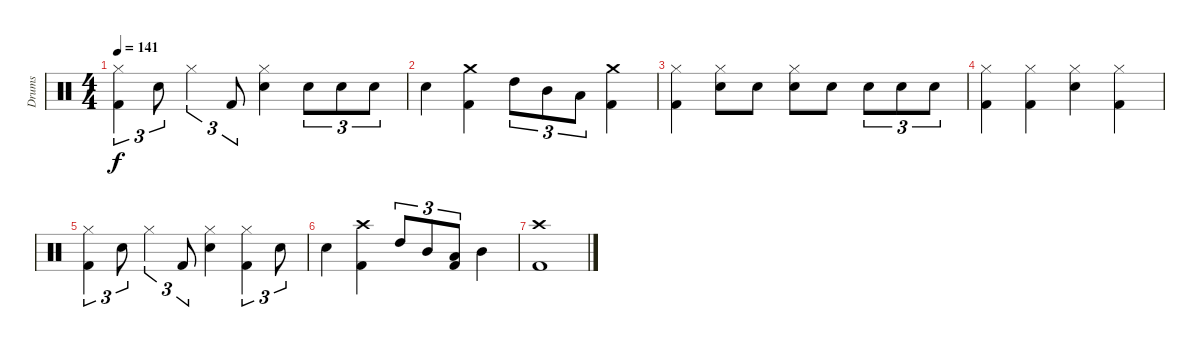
\track ("Drums" "Drums") {instrument percussion}
\staff {score}
\articulation defaults
\ts (4 4)
\tempo 141
\clef neutral
\ks c
("Hi-Hat (closed)" "Kick (hit) 2").4{tu (3 2) dy f} "Electric Snare (hit)".8{tu (3 2)} "Hi-Hat (closed)".4{tu (3 2)} "Kick (hit) 2".8{tu (3 2)} ("Hi-Hat (closed)" "Electric Snare (hit)").4 "Electric Snare (hit)".8{tu (3 2)} "Electric Snare (hit)".8{tu (3 2)} "Electric Snare (hit)".8{tu (3 2)} |
"Electric Snare (hit)".4 ("Crash medium (hit)" "Kick (hit) 2").4 "High Tom (hit)".8{tu (3 2)} "Mid Tom (hit)".8{tu (3 2)} "Low Tom (hit)".8{tu (3 2)} ("Crash medium (hit)" "Kick (hit) 2").4 |
("Hi-Hat (closed)" "Kick (hit) 2").4 ("Hi-Hat (closed)" "Electric Snare (hit)").8 "Electric Snare (hit)".8 ("Hi-Hat (closed)" "Electric Snare (hit)").8 "Electric Snare (hit)".8 "Electric Snare (hit)".8{tu (3 2)} "Electric Snare (hit)".8{tu (3 2)} "Electric Snare (hit)".8{tu (3 2)} |
("Hi-Hat (closed)" "Kick (hit) 2").4 ("Hi-Hat (closed)" "Kick (hit) 2").4 ("Hi-Hat (closed)" "Electric Snare (hit)").4 ("Hi-Hat (closed)" "Kick (hit) 2").4 |
("Hi-Hat (closed)" "Kick (hit) 2").4{tu (3 2)} "Electric Snare (hit)".8{tu (3 2)} "Hi-Hat (closed)".4{tu (3 2)} "Kick (hit) 2".8{tu (3 2)} ("Hi-Hat (closed)" "Electric Snare (hit)").4 ("Hi-Hat (closed)" "Kick (hit) 2").4{tu (3 2)} "Electric Snare (hit)".8{tu (3 2)} |
"Electric Snare (hit)".4 ("Crash high (hit)" "Kick (hit) 2").4 "High Tom (hit)".8{tu (3 2)} "Mid Tom (hit)".8{tu (3 2)} ("Low Tom (hit)" "Kick (hit) 2").8{tu (3 2)} "Mid Tom (hit)".4 |
("Crash high (hit)" "Kick (hit) 2").1
